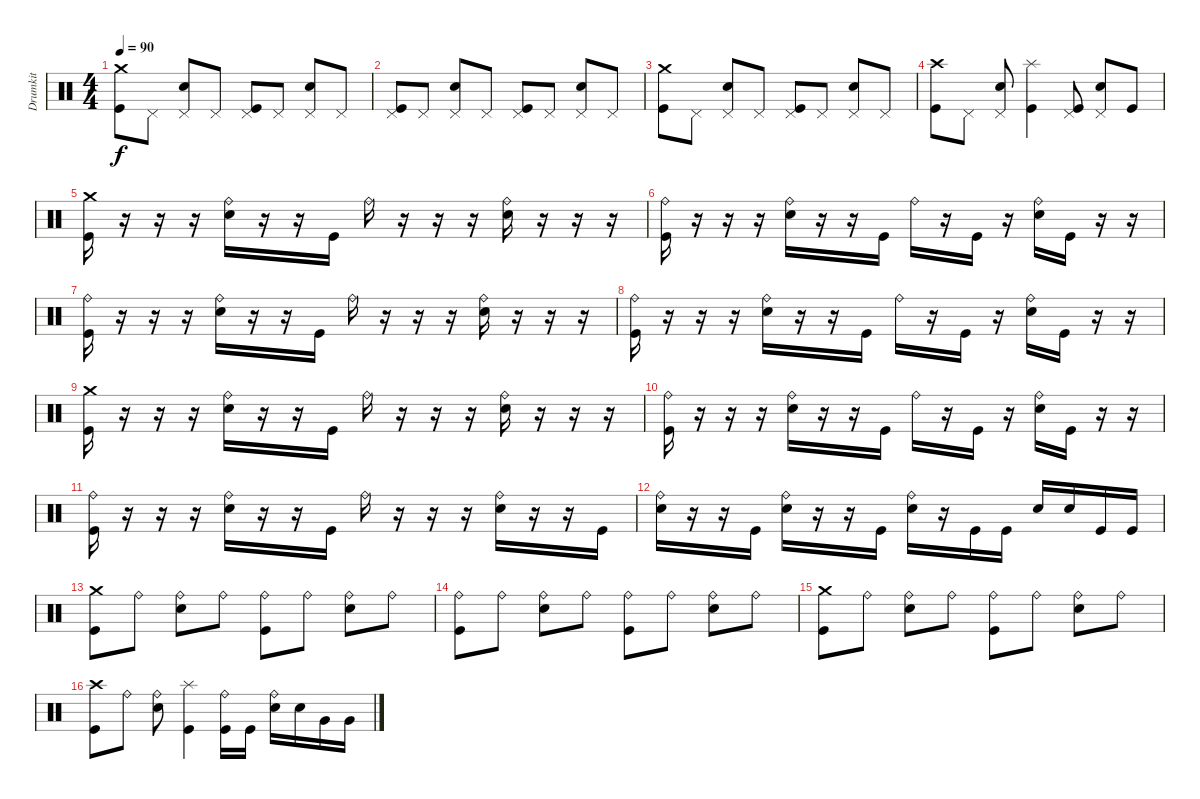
\track ("Drumkit" "Drumkit") {instrument percussion}
\staff {score}
\articulation defaults
\ts (4 4)
\tempo 90
\clef neutral
\ks c
("Crash medium (hit)" "Kick (hit)").8{dy f} "Pedal Hi-Hat (hit)".8 ("Pedal Hi-Hat (hit)" "Snare (hit) 2").8 "Pedal Hi-Hat (hit)".8 ("Pedal Hi-Hat (hit)" "Kick (hit)").8 "Pedal Hi-Hat (hit)".8 ("Pedal Hi-Hat (hit)" "Snare (hit) 2").8 "Pedal Hi-Hat (hit)".8 |
("Pedal Hi-Hat (hit)" "Kick (hit)").8 "Pedal Hi-Hat (hit)".8 ("Pedal Hi-Hat (hit)" "Snare (hit) 2").8 "Pedal Hi-Hat (hit)".8 ("Pedal Hi-Hat (hit)" "Kick (hit)").8 "Pedal Hi-Hat (hit)".8 ("Pedal Hi-Hat (hit)" "Snare (hit) 2").8 "Pedal Hi-Hat (hit)".8 |
("Crash medium (hit)" "Kick (hit)").8 "Pedal Hi-Hat (hit)".8 ("Pedal Hi-Hat (hit)" "Snare (hit) 2").8 "Pedal Hi-Hat (hit)".8 ("Pedal Hi-Hat (hit)" "Kick (hit)").8 "Pedal Hi-Hat (hit)".8 ("Pedal Hi-Hat (hit)" "Snare (hit) 2").8 "Pedal Hi-Hat (hit)".8 |
("Crash high (hit)" "Kick (hit)").8 "Pedal Hi-Hat (hit)".8 ("Pedal Hi-Hat (hit)" "Snare (hit) 2").8 ("Splash (hit)" "Kick (hit)").4 ("Pedal Hi-Hat (hit)" "Kick (hit)").8 ("Pedal Hi-Hat (hit)" "Snare (hit) 2").8 "Kick (hit)".8 |
("Crash medium (hit)" "Kick (hit)").16 r.16 r.16 r.16 ("Ride (bell)" "Snare (hit) 2").16 r.16 r.16 "Kick (hit)".16 "Ride (bell)".16 r.16 r.16 r.16 ("Ride (bell)" "Snare (hit) 2").16 r.16 r.16 r.16 |
("Ride (bell)" "Kick (hit)").16 r.16 r.16 r.16 ("Ride (bell)" "Snare (hit) 2").16 r.16 r.16 "Kick (hit)".16 "Ride (bell)".16 r.16 "Kick (hit)".16 r.16 ("Ride (bell)" "Snare (hit) 2").16 "Kick (hit)".16 r.16 r.16 |
("Ride (bell)" "Kick (hit)").16 r.16 r.16 r.16 ("Ride (bell)" "Snare (hit) 2").16 r.16 r.16 "Kick (hit)".16 "Ride (bell)".16 r.16 r.16 r.16 ("Ride (bell)" "Snare (hit) 2").16 r.16 r.16 r.16 |
("Ride (bell)" "Kick (hit)").16 r.16 r.16 r.16 ("Ride (bell)" "Snare (hit) 2").16 r.16 r.16 "Kick (hit)".16 "Ride (bell)".16 r.16 "Kick (hit)".16 r.16 ("Ride (bell)" "Snare (hit) 2").16 "Kick (hit)".16 r.16 r.16 |
("Crash medium (hit)" "Kick (hit)").16 r.16 r.16 r.16 ("Ride (bell)" "Snare (hit) 2").16 r.16 r.16 "Kick (hit)".16 "Ride (bell)".16 r.16 r.16 r.16 ("Ride (bell)" "Snare (hit) 2").16 r.16 r.16 r.16 |
("Ride (bell)" "Kick (hit)").16 r.16 r.16 r.16 ("Ride (bell)" "Snare (hit) 2").16 r.16 r.16 "Kick (hit)".16 "Ride (bell)".16 r.16 "Kick (hit)".16 r.16 ("Ride (bell)" "Snare (hit) 2").16 "Kick (hit)".16 r.16 r.16 |
("Ride (bell)" "Kick (hit)").16 r.16 r.16 r.16 ("Ride (bell)" "Snare (hit) 2").16 r.16 r.16 "Kick (hit)".16 "Ride (bell)".16 r.16 r.16 r.16 ("Ride (bell)" "Snare (hit) 2").16 r.16 r.16 "Kick (hit)".16 |
("Ride (bell)" "Snare (hit) 2").16 r.16 r.16 "Kick (hit)".16 ("Ride (bell)" "Snare (hit) 2").16 r.16 r.16 "Kick (hit)".16 ("Ride (bell)" "Snare (hit) 2").16 r.16 "Kick (hit)".16 "Kick (hit)".16 "Snare (hit) 2".16 "Snare (hit) 2".16 "Kick (hit)".16 "Kick (hit)".16 |
("Crash medium (hit)" "Kick (hit)").8 "Ride (bell)".8 ("Ride (bell)" "Snare (hit) 2").8 "Ride (bell)".8 ("Ride (bell)" "Kick (hit)").8 "Ride (bell)".8 ("Ride (bell)" "Snare (hit) 2").8 "Ride (bell)".8 |
("Ride (bell)" "Kick (hit)").8 "Ride (bell)".8 ("Ride (bell)" "Snare (hit) 2").8 "Ride (bell)".8 ("Ride (bell)" "Kick (hit)").8 "Ride (bell)".8 ("Ride (bell)" "Snare (hit) 2").8 "Ride (bell)".8 |
("Crash medium (hit)" "Kick (hit)").8 "Ride (bell)".8 ("Ride (bell)" "Snare (hit) 2").8 "Ride (bell)".8 ("Ride (bell)" "Kick (hit)").8 "Ride (bell)".8 ("Ride (bell)" "Snare (hit) 2").8 "Ride (bell)".8 |
("Crash high (hit)" "Kick (hit)").8 "Ride (bell)".8 ("Ride (bell)" "Snare (hit) 2").8 ("Splash (hit)" "Kick (hit)").4 ("Ride (bell)" "Kick (hit)").16 "Kick (hit)".16 ("Ride (bell)" "Snare (hit) 2").16 "Snare (hit) 2".16 "Very Low Tom (hit)".16 "Very Low Tom (hit)".16
